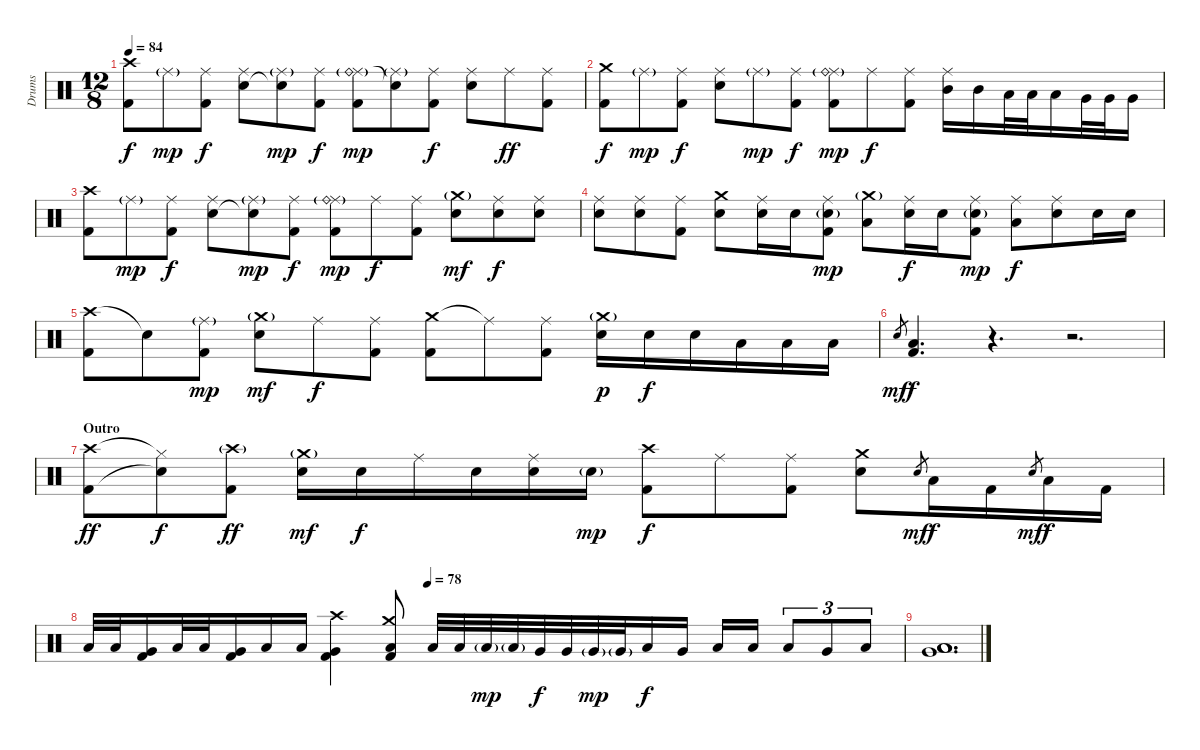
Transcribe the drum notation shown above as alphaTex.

\track ("Drums" "Drums") {instrument percussion}
\staff {score}
\articulation defaults
\ts (12 8)
\tempo 84
\clef neutral
\ks c
("Crash high (hit)" "Kick (hit) 2").8{dy f} "Ride (middle)"{g}.8{dy mp} ("Ride (middle)" "Kick (hit) 2").8{dy f} ("Ride (middle)" "Electric Snare (hit)").8 ("Ride (middle)"{g} "Snare (hit)"{t}).8{dy mp} ("Ride (middle)" "Kick (hit) 2").8{dy f} ("Ride (middle)" "Ride (bell)"{g} "Kick (hit) 2").8{dy mp} ("Ride (middle)"{g} "Snare (hit)"{t}).8 ("Ride (middle)" "Kick (hit) 2").8{dy f} ("Ride (middle)" "Electric Snare (hit)").8 "Ride (middle)".8{dy ff} ("Ride (middle)" "Kick (hit) 2").8 |
("Crash medium (hit)" "Kick (hit) 2").8{dy f} "Ride (middle)"{g}.8{dy mp} ("Ride (middle)" "Kick (hit) 2").8{dy f} ("Ride (middle)" "Electric Snare (hit)").8 "Ride (middle)"{g}.8{dy mp} ("Ride (middle)" "Kick (hit) 2").8{dy f} ("Ride (middle)" "Ride (bell)"{g} "Kick (hit) 2").8{dy mp} "Ride (middle)".8{dy f} ("Ride (middle)" "Kick (hit) 2").8 ("Ride (middle)" "Mid Tom (hit)").16 "Mid Tom (hit)".16 "Low Tom (hit)".32 "Low Tom (hit)".32 "Low Tom (hit)".16 "Very Low Tom (hit)".32 "Very Low Tom (hit)".32 "Very Low Tom (hit)".16 |
("Crash high (hit)" "Kick (hit) 2").8 "Ride (middle)"{g}.8{dy mp} ("Ride (middle)" "Kick (hit) 2").8{dy f} ("Ride (middle)" "Electric Snare (hit)").8 ("Ride (middle)"{g} "Snare (hit)"{t}).8{dy mp} ("Ride (middle)" "Kick (hit) 2").8{dy f} ("Ride (middle)" "Ride (bell)"{g} "Kick (hit) 2").8{dy mp} "Ride (middle)".8{dy f} ("Ride (middle)" "Kick (hit) 2").8 ("Crash medium (hit)"{g} "Electric Snare (hit)").8{dy mf} ("Ride (middle)" "Electric Snare (hit)").8{dy f} ("Ride (middle)" "Electric Snare (hit)").8 |
("Ride (middle)" "Electric Snare (hit)").8 ("Ride (middle)" "Electric Snare (hit)").8 ("Ride (middle)" "Kick (hit) 2").8 ("Crash medium (hit)" "Electric Snare (hit)").8 ("Ride (middle)" "Electric Snare (hit)").16 "Electric Snare (hit)".16 ("Ride (middle)" "Electric Snare (hit)"{g} "Kick (hit) 2").8{dy mp} ("Crash medium (hit)"{g} "Low Tom (hit)").8 ("Ride (middle)" "Electric Snare (hit)").16{dy f} "Electric Snare (hit)".16 ("Ride (middle)" "Electric Snare (hit)"{g} "Kick (hit) 2").8{dy mp} ("Ride (middle)" "Low Tom (hit)").8{dy f} ("Ride (middle)" "Electric Snare (hit)").8 "Electric Snare (hit)".16 "Electric Snare (hit)".16 |
("Crash high (hit)" "Kick (hit) 2").8 "Snare (hit)"{t}.8 ("Ride (middle)"{g} "Kick (hit) 2").8{dy mp} ("Crash medium (hit)"{g} "Electric Snare (hit)").8{dy mf} "Ride (middle)".8{dy f} ("Ride (middle)" "Kick (hit) 2").8 ("Crash medium (hit)" "Kick (hit) 2").8 "Ride (middle)"{t}.8 ("Ride (middle)" "Kick (hit) 2").8 ("Crash medium (hit)"{g} "Electric Snare (hit)").16{dy p} "Electric Snare (hit)".16{dy f} "Electric Snare (hit)".16 "Low Tom (hit)".16 "Low Tom (hit)".16 "Low Tom (hit)".16 |
"Electric Snare (hit)".8{gr dy mf} ("Low Tom (hit)" "Kick (hit) 2").4{d dy f} r.4{d} r.2{d} |
\section ("" "Outro")
("Crash high (hit)" "Kick (hit) 2").8{dy ff} ("Hi-Hat (closed)"{t} "Snare (hit)"{t}).8{dy f} ("Crash high (hit)"{g} "Kick (hit) 2").8{dy ff} ("Crash medium (hit)"{g} "Electric Snare (hit)").16{dy mf} "Electric Snare (hit)".16{dy f} "Ride (middle)".16 "Electric Snare (hit)".16 ("Ride (middle)" "Electric Snare (hit)").16 "Electric Snare (hit)"{g}.16{dy mp} ("Crash high (hit)" "Kick (hit) 2").8{dy f} "Ride (middle)".8 ("Ride (middle)" "Kick (hit) 2").8 ("Crash medium (hit)" "Electric Snare (hit)").8 "Electric Snare (hit)".8{gr dy mf} "Low Tom (hit)".16{dy f} "Kick (hit) 2".16 "Electric Snare (hit)".8{gr dy mf} "Low Tom (hit)".16{dy f} "Kick (hit) 2".16 |
\tempo (78 0.4166666666666667)
"Low Tom (hit)".32 "Low Tom (hit)".32 ("Very Low Tom (hit)" "Kick (hit) 2").16 "Low Tom (hit)".32 "Low Tom (hit)".32 ("Very Low Tom (hit)" "Kick (hit) 2").16 "Low Floor Tom (hit)".16 "Low Floor Tom (hit)".16 ("Crash high (hit)" "Very Low Tom (hit)" "Kick (hit) 2").4 ("Crash medium (hit)" "Low Tom (hit)" "Kick (hit) 2").8{volume 4} "Low Tom (hit)".32 "Low Tom (hit)".32 "Low Tom (hit)"{g}.32{dy mp} "Low Tom (hit)"{g}.32 "Very Low Tom (hit)".32{dy f} "Very Low Tom (hit)".32 "Very Low Tom (hit)"{g}.32{dy mp} "Very Low Tom (hit)"{g}.32 "Low Tom (hit)".16{dy f} "Very Low Tom (hit)".16 "Low Floor Tom (hit)".16 "Low Floor Tom (hit)".16 "Low Tom (hit)".8{tu (3 2)} "Very Low Tom (hit)".8{tu (3 2)} "Low Floor Tom (hit)".8{tu (3 2)} |
("Low Floor Tom (hit)" "Very Low Tom (hit)" "Low Tom (hit)").1{d bd 240}
